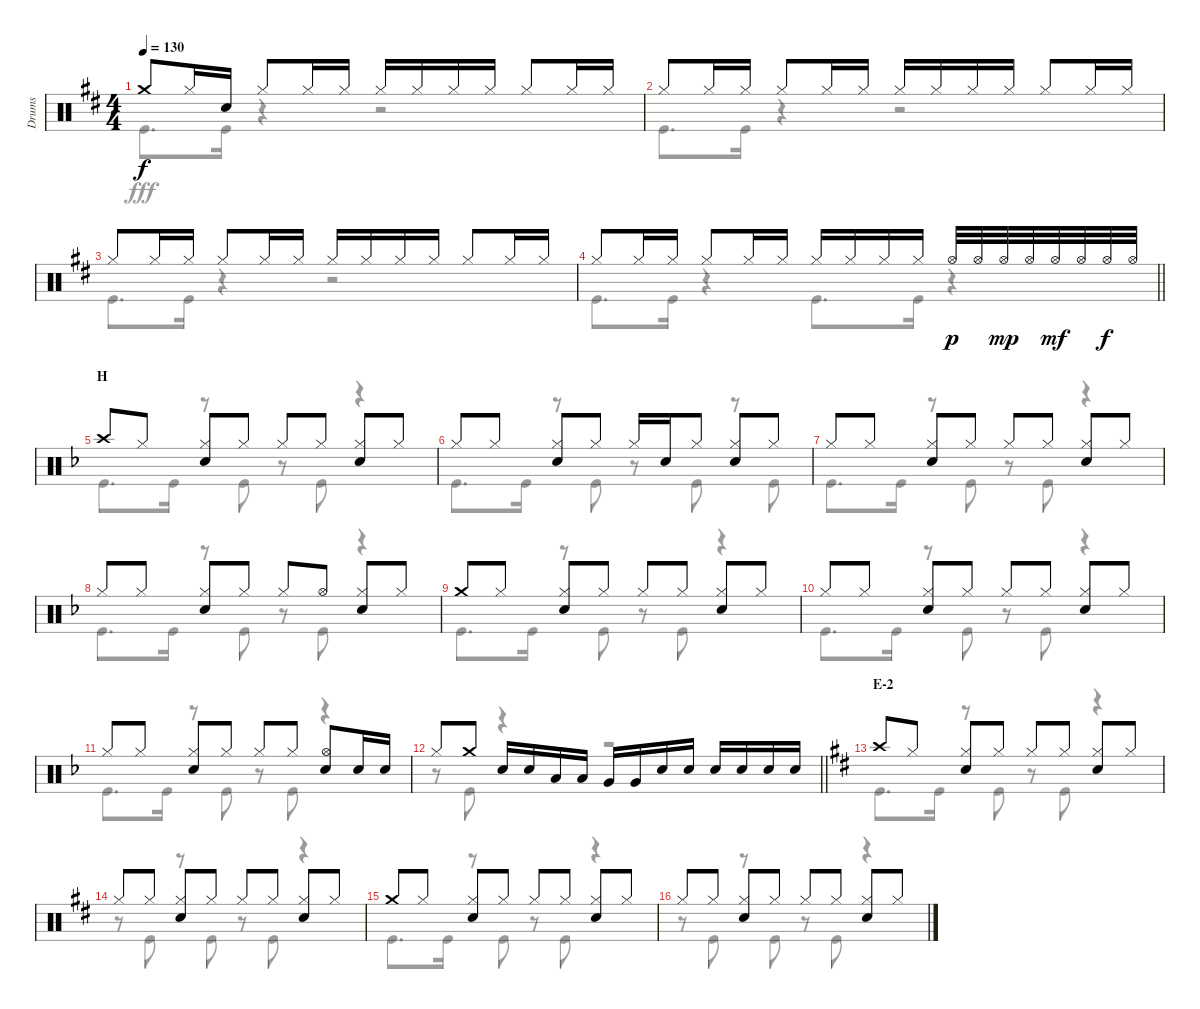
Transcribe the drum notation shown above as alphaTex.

\track ("Drums" "Drums") {instrument percussion}
\staff {score}
\articulation defaults
\voice
\ts (4 4)
\tempo 130
\clef neutral
\ks d "Crash medium (hit)".8{dy f} "Hi-Hat (closed)".16 "Snare (hit) 2".16 "Hi-Hat (closed)".8 "Hi-Hat (closed)".16 "Hi-Hat (closed)".16 "Hi-Hat (closed)".16 "Hi-Hat (closed)".16 "Hi-Hat (closed)".16 "Hi-Hat (closed)".16 "Hi-Hat (closed)".8 "Hi-Hat (closed)".16 "Hi-Hat (closed)".16
|
"Hi-Hat (closed)".8 "Hi-Hat (closed)".16 "Hi-Hat (closed)".16 "Hi-Hat (closed)".8 "Hi-Hat (closed)".16 "Hi-Hat (closed)".16 "Hi-Hat (closed)".16 "Hi-Hat (closed)".16 "Hi-Hat (closed)".16 "Hi-Hat (closed)".16 "Hi-Hat (closed)".8 "Hi-Hat (closed)".16 "Hi-Hat (closed)".16 |
"Hi-Hat (closed)".8 "Hi-Hat (closed)".16 "Hi-Hat (closed)".16 "Hi-Hat (closed)".8 "Hi-Hat (closed)".16 "Hi-Hat (closed)".16 "Hi-Hat (closed)".16 "Hi-Hat (closed)".16 "Hi-Hat (closed)".16 "Hi-Hat (closed)".16 "Hi-Hat (closed)".8 "Hi-Hat (closed)".16 "Hi-Hat (closed)".16 |
\barLineRight lightlight "Hi-Hat (closed)".8 "Hi-Hat (closed)".16 "Hi-Hat (closed)".16 "Hi-Hat (closed)".8 "Hi-Hat (closed)".16 "Hi-Hat (closed)".16 "Hi-Hat (closed)".16 "Hi-Hat (closed)".16 "Hi-Hat (closed)".16 "Hi-Hat (closed)".16 "Hi-Hat (open)".32{dy p} "Hi-Hat (open)".32 "Hi-Hat (open)".32{dy mp} "Hi-Hat (open)".32 "Hi-Hat (open)".32{dy mf} "Hi-Hat (open)".32 "Hi-Hat (open)".32{dy f} "Hi-Hat (open)".32
|
\section ("" "H")
\ks f "Crash high (hit)".8 "Hi-Hat (closed)".8
("Hi-Hat (closed)" "Snare (hit) 2").8 "Hi-Hat (closed)".8 "Hi-Hat (closed)".8 "Hi-Hat (closed)".8 ("Hi-Hat (closed)" "Snare (hit) 2").8 "Hi-Hat (closed)".8 |
"Hi-Hat (closed)".8 "Hi-Hat (closed)".8 ("Hi-Hat (closed)" "Snare (hit) 2").8 "Hi-Hat (closed)".8 "Hi-Hat (closed)".16 "Snare (hit) 2".16 "Hi-Hat (closed)".8 ("Hi-Hat (closed)" "Snare (hit) 2").8 "Hi-Hat (closed)".8 |
"Hi-Hat (closed)".8 "Hi-Hat (closed)".8 ("Hi-Hat (closed)" "Snare (hit) 2").8 "Hi-Hat (closed)".8 "Hi-Hat (closed)".8 "Hi-Hat (closed)".8 ("Hi-Hat (closed)" "Snare (hit) 2").8 "Hi-Hat (closed)".8 |
"Hi-Hat (closed)".8 "Hi-Hat (closed)".8 ("Hi-Hat (closed)" "Snare (hit) 2").8 "Hi-Hat (closed)".8 "Hi-Hat (closed)".8 "Hi-Hat (open)".8 ("Hi-Hat (closed)" "Snare (hit) 2").8 "Hi-Hat (closed)".8 |
"Crash medium (hit)".8 "Hi-Hat (closed)".8 ("Hi-Hat (closed)" "Snare (hit) 2").8 "Hi-Hat (closed)".8 "Hi-Hat (closed)".8 "Hi-Hat (closed)".8 ("Hi-Hat (closed)" "Snare (hit) 2").8 "Hi-Hat (closed)".8 |
"Hi-Hat (closed)".8 "Hi-Hat (closed)".8 ("Hi-Hat (closed)" "Snare (hit) 2").8 "Hi-Hat (closed)".8 "Hi-Hat (closed)".8 "Hi-Hat (closed)".8 ("Hi-Hat (closed)" "Snare (hit) 2").8 "Hi-Hat (closed)".8 |
"Hi-Hat (closed)".8 "Hi-Hat (closed)".8 ("Hi-Hat (closed)" "Snare (hit) 2").8 "Hi-Hat (closed)".8 "Hi-Hat (closed)".8 "Hi-Hat (closed)".8 ("Hi-Hat (open)" "Snare (hit) 2").8 "Snare (hit) 2".16 "Snare (hit) 2".16 |
\barLineRight lightlight "Hi-Hat (closed)".8 "Crash medium (hit)".8 "Snare (hit) 2".16 "Snare (hit) 2".16 "Low Tom (hit)".16 "Low Tom (hit)".16 "Very Low Tom (hit)".16 "Very Low Tom (hit)".16 "Snare (hit) 2".16 "Snare (hit) 2".16 "Snare (hit) 2".16 "Snare (hit) 2".16 "Snare (hit) 2".16 "Snare (hit) 2".16
|
\section ("" "E-2")
\ks d "Crash high (hit)".8 "Hi-Hat (closed)".8
("Hi-Hat (closed)" "Snare (hit) 2").8 "Hi-Hat (closed)".8 "Hi-Hat (closed)".8 "Hi-Hat (closed)".8 ("Hi-Hat (closed)" "Snare (hit) 2").8 "Hi-Hat (closed)".8 |
"Hi-Hat (closed)".8 "Hi-Hat (closed)".8 ("Hi-Hat (closed)" "Snare (hit) 2").8 "Hi-Hat (closed)".8 "Hi-Hat (closed)".8 "Hi-Hat (closed)".8 ("Hi-Hat (closed)" "Snare (hit) 2").8 "Hi-Hat (closed)".8 |
"Crash medium (hit)".8 "Hi-Hat (closed)".8 ("Hi-Hat (closed)" "Snare (hit) 2").8 "Hi-Hat (closed)".8 "Hi-Hat (closed)".8 "Hi-Hat (closed)".8 ("Hi-Hat (closed)" "Snare (hit) 2").8 "Hi-Hat (closed)".8 |
"Hi-Hat (closed)".8 "Hi-Hat (closed)".8 ("Hi-Hat (closed)" "Snare (hit) 2").8 "Hi-Hat (closed)".8 "Hi-Hat (closed)".8 "Hi-Hat (closed)".8 ("Hi-Hat (closed)" "Snare (hit) 2").8 "Hi-Hat (closed)".8
\voice
\clef neutral
\ottava regular
\simile none
\ks d "Kick (hit)".8{d dy fff} "Kick (hit)".16
r.4 r.2 |
"Kick (hit)".8{d} "Kick (hit)".16 r.4 r.2 |
"Kick (hit)".8{d} "Kick (hit)".16 r.4 r.2 |
\barLineRight lightlight "Kick (hit)".8{d} "Kick (hit)".16
r.4 "Kick (hit)".8{d} "Kick (hit)".16 r.4 |
\ks f "Kick (hit)".8{d} "Kick (hit)".16
r.8 "Kick (hit)".8 r.8 "Kick (hit)".8 r.4 |
"Kick (hit)".8{d} "Kick (hit)".16 r.8 "Kick (hit)".8 r.8 "Kick (hit)".8 r.8 "Kick (hit)".8 |
"Kick (hit)".8{d} "Kick (hit)".16 r.8 "Kick (hit)".8 r.8 "Kick (hit)".8 r.4 |
"Kick (hit)".8{d} "Kick (hit)".16 r.8 "Kick (hit)".8 r.8 "Kick (hit)".8 r.4 |
"Kick (hit)".8{d} "Kick (hit)".16 r.8 "Kick (hit)".8 r.8 "Kick (hit)".8 r.4 |
"Kick (hit)".8{d} "Kick (hit)".16 r.8 "Kick (hit)".8 r.8 "Kick (hit)".8 r.4 |
"Kick (hit)".8{d} "Kick (hit)".16 r.8 "Kick (hit)".8 r.8 "Kick (hit)".8 r.4 |
\barLineRight lightlight
r.8 "Kick (hit)".8 r.4 r.2 |
\ks d "Kick (hit)".8{d} "Kick (hit)".16
r.8 "Kick (hit)".8 r.8 "Kick (hit)".8 r.4 |
r.8 "Kick (hit)".8 r.8 "Kick (hit)".8 r.8 "Kick (hit)".8 r.4 |
"Kick (hit)".8{d} "Kick (hit)".16 r.8 "Kick (hit)".8 r.8 "Kick (hit)".8 r.4 |
r.8 "Kick (hit)".8 r.8 "Kick (hit)".8 r.8 "Kick (hit)".8 r.4
